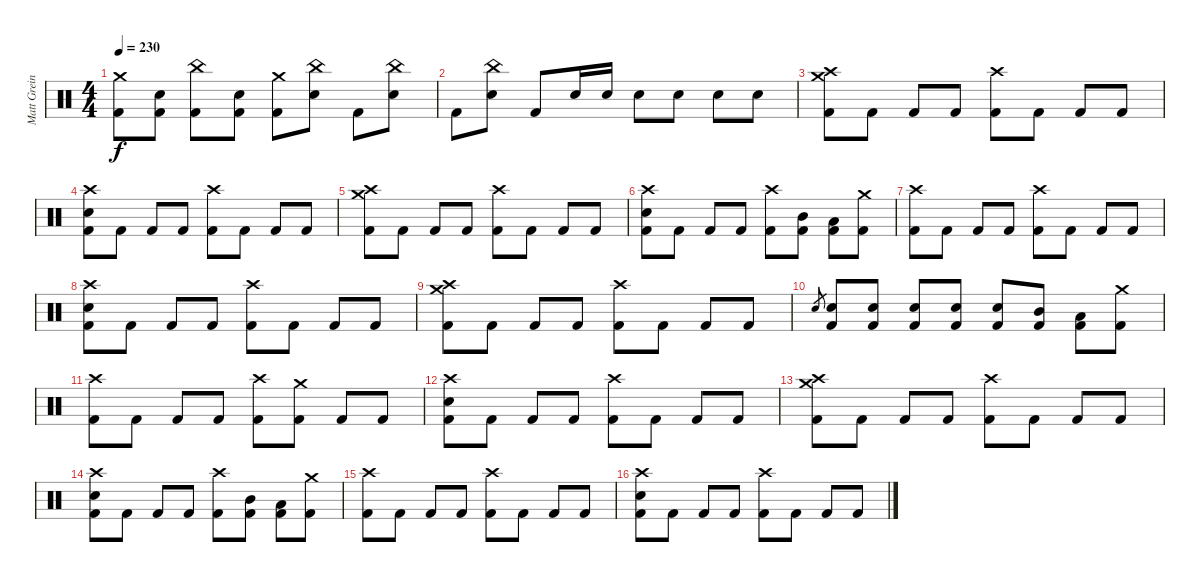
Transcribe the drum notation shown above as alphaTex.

\track ("Matt Greiner (Drums)" "Matt Grein") {instrument percussion}
\staff {score}
\articulation defaults
\ts (4 4)
\tempo 230
\clef neutral
\ks c
("Crash medium (hit)" "Kick (hit) 2").8{dy f} ("Electric Snare (hit)" "Kick (hit) 2").8 ("China (hit)" "Kick (hit) 2").8 ("Electric Snare (hit)" "Kick (hit) 2").8 ("Crash medium (hit)" "Kick (hit) 2").8 ("China (hit)" "Electric Snare (hit)").8 "Kick (hit) 2".8 ("China (hit)" "Electric Snare (hit)").8 |
"Kick (hit) 2".8 ("China (hit)" "Electric Snare (hit)").8 "Kick (hit) 2".8 "Electric Snare (hit)".16 "Electric Snare (hit)".16 "Electric Snare (hit)".8 "Electric Snare (hit)".8 "Electric Snare (hit)".8 "Electric Snare (hit)".8 |
("Crash medium (hit)" "Crash high (hit)" "Kick (hit) 2").8 "Kick (hit) 2".8 "Kick (hit) 2".8 "Kick (hit) 2".8 ("Crash high (hit)" "Kick (hit) 2").8 "Kick (hit) 2".8 "Kick (hit) 2".8 "Kick (hit) 2".8 |
("Crash high (hit)" "Electric Snare (hit)" "Kick (hit) 2").8 "Kick (hit) 2".8 "Kick (hit) 2".8 "Kick (hit) 2".8 ("Crash high (hit)" "Kick (hit) 2").8 "Kick (hit) 2".8 "Kick (hit) 2".8 "Kick (hit) 2".8 |
("Crash medium (hit)" "Crash high (hit)" "Kick (hit) 2").8 "Kick (hit) 2".8 "Kick (hit) 2".8 "Kick (hit) 2".8 ("Crash high (hit)" "Kick (hit) 2").8 "Kick (hit) 2".8 "Kick (hit) 2".8 "Kick (hit) 2".8 |
("Crash high (hit)" "Electric Snare (hit)" "Kick (hit) 2").8 "Kick (hit) 2".8 "Kick (hit) 2".8 "Kick (hit) 2".8 ("Crash high (hit)" "Kick (hit) 2").8 ("Mid Tom (hit)" "Kick (hit) 2").8 ("Low Tom (hit)" "Kick (hit) 2").8 ("Crash medium (hit)" "Kick (hit) 2").8 |
("Crash high (hit)" "Kick (hit) 2").8 "Kick (hit) 2".8 "Kick (hit) 2".8 "Kick (hit) 2".8 ("Crash high (hit)" "Kick (hit) 2").8 "Kick (hit) 2".8 "Kick (hit) 2".8 "Kick (hit) 2".8 |
("Crash high (hit)" "Electric Snare (hit)" "Kick (hit) 2").8 "Kick (hit) 2".8 "Kick (hit) 2".8 "Kick (hit) 2".8 ("Crash high (hit)" "Kick (hit) 2").8 "Kick (hit) 2".8 "Kick (hit) 2".8 "Kick (hit) 2".8 |
("Crash medium (hit)" "Crash high (hit)" "Kick (hit) 2").8 "Kick (hit) 2".8 "Kick (hit) 2".8 "Kick (hit) 2".8 ("Crash high (hit)" "Kick (hit) 2").8 "Kick (hit) 2".8 "Kick (hit) 2".8 "Kick (hit) 2".8 |
"Electric Snare (hit)".8{gr} ("Electric Snare (hit)" "Kick (hit) 2").8 ("Electric Snare (hit)" "Kick (hit) 2").8 ("Electric Snare (hit)" "Kick (hit) 2").8 ("Electric Snare (hit)" "Kick (hit) 2").8 ("Electric Snare (hit)" "Kick (hit) 2").8 ("Mid Tom (hit)" "Kick (hit) 2").8 ("Low Tom (hit)" "Kick (hit) 2").8 ("Crash medium (hit)" "Kick (hit) 2").8 |
("Crash high (hit)" "Kick (hit) 2").8 "Kick (hit) 2".8 "Kick (hit) 2".8 "Kick (hit) 2".8 ("Crash high (hit)" "Kick (hit) 2").8 ("Crash medium (hit)" "Kick (hit) 2").8 "Kick (hit) 2".8 "Kick (hit) 2".8 |
("Crash high (hit)" "Electric Snare (hit)" "Kick (hit) 2").8 "Kick (hit) 2".8 "Kick (hit) 2".8 "Kick (hit) 2".8 ("Crash high (hit)" "Kick (hit) 2").8 "Kick (hit) 2".8 "Kick (hit) 2".8 "Kick (hit) 2".8 |
("Crash medium (hit)" "Crash high (hit)" "Kick (hit) 2").8 "Kick (hit) 2".8 "Kick (hit) 2".8 "Kick (hit) 2".8 ("Crash high (hit)" "Kick (hit) 2").8 "Kick (hit) 2".8 "Kick (hit) 2".8 "Kick (hit) 2".8 |
("Crash high (hit)" "Electric Snare (hit)" "Kick (hit) 2").8 "Kick (hit) 2".8 "Kick (hit) 2".8 "Kick (hit) 2".8 ("Crash high (hit)" "Kick (hit) 2").8 ("Mid Tom (hit)" "Kick (hit) 2").8 ("Low Tom (hit)" "Kick (hit) 2").8 ("Crash medium (hit)" "Kick (hit) 2").8 |
("Crash high (hit)" "Kick (hit) 2").8 "Kick (hit) 2".8 "Kick (hit) 2".8 "Kick (hit) 2".8 ("Crash high (hit)" "Kick (hit) 2").8 "Kick (hit) 2".8 "Kick (hit) 2".8 "Kick (hit) 2".8 |
("Crash high (hit)" "Electric Snare (hit)" "Kick (hit) 2").8 "Kick (hit) 2".8 "Kick (hit) 2".8 "Kick (hit) 2".8 ("Crash high (hit)" "Kick (hit) 2").8 "Kick (hit) 2".8 "Kick (hit) 2".8 "Kick (hit) 2".8
